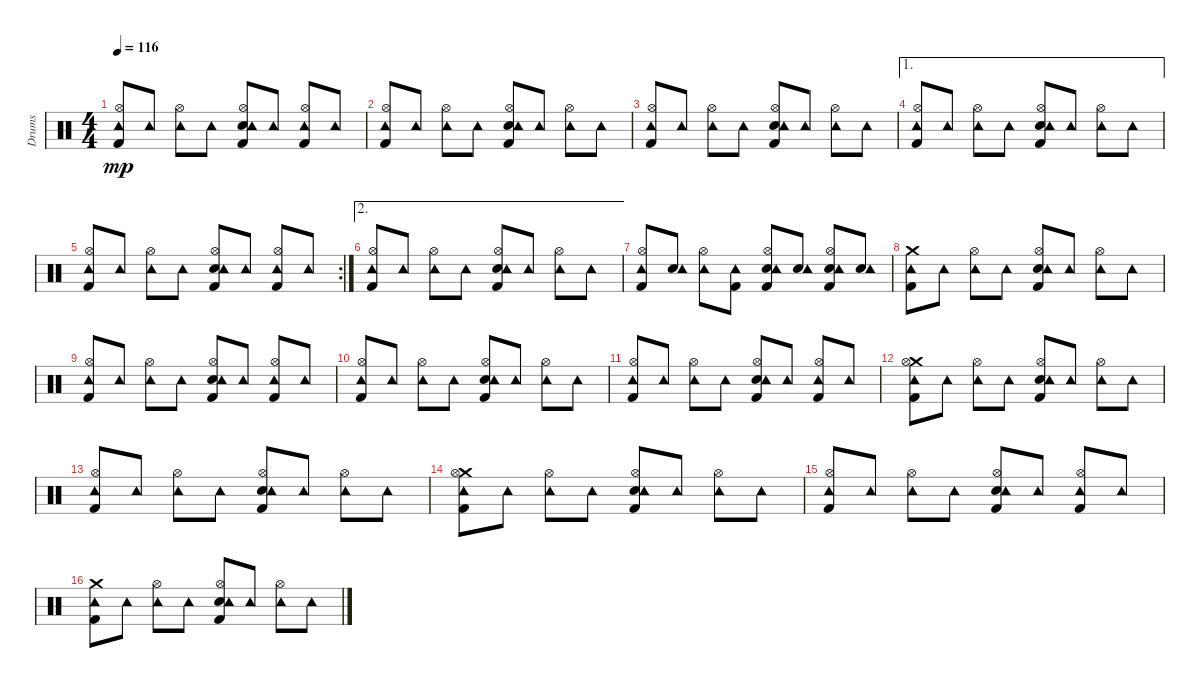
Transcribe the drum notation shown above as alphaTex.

\track ("Drums" "Drums") {instrument percussion}
\staff {score}
\articulation defaults
\ts (4 4)
\tempo 116
\clef neutral
\ks c
("Kick (hit) 2" "Hi-Hat (open)" "Tambourine (hit)").8{dy mp} "Tambourine (hit)".8 ("Hi-Hat (open)" "Tambourine (hit)").8 "Tambourine (hit)".8 ("Kick (hit) 2" "Hi-Hat (open)" "Snare (hit) 2" "Tambourine (hit)").8 "Tambourine (hit)".8 ("Kick (hit) 2" "Hi-Hat (open)" "Tambourine (hit)").8 "Tambourine (hit)".8 |
("Kick (hit) 2" "Hi-Hat (open)" "Tambourine (hit)").8 "Tambourine (hit)".8 ("Hi-Hat (open)" "Tambourine (hit)").8 "Tambourine (hit)".8 ("Kick (hit) 2" "Hi-Hat (open)" "Snare (hit) 2" "Tambourine (hit)").8 "Tambourine (hit)".8 ("Hi-Hat (open)" "Tambourine (hit)").8 "Tambourine (hit)".8 |
("Kick (hit) 2" "Hi-Hat (open)" "Tambourine (hit)").8 "Tambourine (hit)".8 ("Hi-Hat (open)" "Tambourine (hit)").8 "Tambourine (hit)".8 ("Kick (hit) 2" "Hi-Hat (open)" "Snare (hit) 2" "Tambourine (hit)").8 "Tambourine (hit)".8 ("Hi-Hat (open)" "Tambourine (hit)").8 "Tambourine (hit)".8 |
\ae 1
("Kick (hit) 2" "Hi-Hat (open)" "Tambourine (hit)").8 "Tambourine (hit)".8 ("Hi-Hat (open)" "Tambourine (hit)").8 "Tambourine (hit)".8 ("Kick (hit) 2" "Hi-Hat (open)" "Snare (hit) 2" "Tambourine (hit)").8 "Tambourine (hit)".8 ("Hi-Hat (open)" "Tambourine (hit)").8 "Tambourine (hit)".8 |
\rc 2
("Kick (hit) 2" "Hi-Hat (open)" "Tambourine (hit)").8 "Tambourine (hit)".8 ("Hi-Hat (open)" "Tambourine (hit)").8 "Tambourine (hit)".8 ("Kick (hit) 2" "Hi-Hat (open)" "Snare (hit) 2" "Tambourine (hit)").8 "Tambourine (hit)".8 ("Kick (hit) 2" "Hi-Hat (open)" "Tambourine (hit)").8 "Tambourine (hit)".8 |
\ae 2
("Kick (hit) 2" "Hi-Hat (open)" "Tambourine (hit)").8 "Tambourine (hit)".8 ("Hi-Hat (open)" "Tambourine (hit)").8 "Tambourine (hit)".8 ("Kick (hit) 2" "Hi-Hat (open)" "Snare (hit) 2" "Tambourine (hit)").8 "Tambourine (hit)".8 ("Hi-Hat (open)" "Tambourine (hit)").8 "Tambourine (hit)".8 |
("Kick (hit) 2" "Hi-Hat (open)" "Tambourine (hit)").8 ("Snare (hit) 2" "Tambourine (hit)").8 ("Hi-Hat (open)" "Tambourine (hit)").8 ("Kick (hit) 2" "Tambourine (hit)").8 ("Kick (hit) 2" "Hi-Hat (open)" "Snare (hit) 2" "Tambourine (hit)").8 ("Snare (hit) 2" "Tambourine (hit)").8 ("Kick (hit) 2" "Hi-Hat (open)" "Snare (hit) 2" "Tambourine (hit)").8 ("Snare (hit) 2" "Tambourine (hit)").8 |
("Kick (hit) 2" "Crash medium (hit)" "Tambourine (hit)").8 "Tambourine (hit)".8 ("Hi-Hat (open)" "Tambourine (hit)").8 "Tambourine (hit)".8 ("Kick (hit) 2" "Hi-Hat (open)" "Snare (hit) 2" "Tambourine (hit)").8 "Tambourine (hit)".8 ("Hi-Hat (open)" "Tambourine (hit)").8 "Tambourine (hit)".8 |
("Kick (hit) 2" "Hi-Hat (open)" "Tambourine (hit)").8 "Tambourine (hit)".8 ("Hi-Hat (open)" "Tambourine (hit)").8 "Tambourine (hit)".8 ("Kick (hit) 2" "Hi-Hat (open)" "Snare (hit) 2" "Tambourine (hit)").8 "Tambourine (hit)".8 ("Kick (hit) 2" "Hi-Hat (open)" "Tambourine (hit)").8 "Tambourine (hit)".8 |
("Kick (hit) 2" "Hi-Hat (open)" "Tambourine (hit)").8 "Tambourine (hit)".8 ("Hi-Hat (open)" "Tambourine (hit)").8 "Tambourine (hit)".8 ("Kick (hit) 2" "Hi-Hat (open)" "Snare (hit) 2" "Tambourine (hit)").8 "Tambourine (hit)".8 ("Hi-Hat (open)" "Tambourine (hit)").8 "Tambourine (hit)".8 |
("Kick (hit) 2" "Hi-Hat (open)" "Tambourine (hit)").8 "Tambourine (hit)".8 ("Hi-Hat (open)" "Tambourine (hit)").8 "Tambourine (hit)".8 ("Kick (hit) 2" "Hi-Hat (open)" "Snare (hit) 2" "Tambourine (hit)").8 "Tambourine (hit)".8 ("Kick (hit) 2" "Hi-Hat (open)" "Tambourine (hit)").8 "Tambourine (hit)".8 |
("Kick (hit) 2" "Crash medium (hit)" "Hi-Hat (open)" "Tambourine (hit)").8 "Tambourine (hit)".8 ("Hi-Hat (open)" "Tambourine (hit)").8 "Tambourine (hit)".8 ("Kick (hit) 2" "Hi-Hat (open)" "Snare (hit) 2" "Tambourine (hit)").8 "Tambourine (hit)".8 ("Hi-Hat (open)" "Tambourine (hit)").8 "Tambourine (hit)".8 |
("Kick (hit) 2" "Hi-Hat (open)" "Tambourine (hit)").8 "Tambourine (hit)".8 ("Hi-Hat (open)" "Tambourine (hit)").8 "Tambourine (hit)".8 ("Kick (hit) 2" "Hi-Hat (open)" "Snare (hit) 2" "Tambourine (hit)").8 "Tambourine (hit)".8 ("Hi-Hat (open)" "Tambourine (hit)").8 "Tambourine (hit)".8 |
("Kick (hit) 2" "Crash medium (hit)" "Hi-Hat (open)" "Tambourine (hit)").8 "Tambourine (hit)".8 ("Hi-Hat (open)" "Tambourine (hit)").8 "Tambourine (hit)".8 ("Kick (hit) 2" "Hi-Hat (open)" "Snare (hit) 2" "Tambourine (hit)").8 "Tambourine (hit)".8 ("Hi-Hat (open)" "Tambourine (hit)").8 "Tambourine (hit)".8 |
("Kick (hit) 2" "Hi-Hat (open)" "Tambourine (hit)").8 "Tambourine (hit)".8 ("Hi-Hat (open)" "Tambourine (hit)").8 "Tambourine (hit)".8 ("Kick (hit) 2" "Hi-Hat (open)" "Snare (hit) 2" "Tambourine (hit)").8 "Tambourine (hit)".8 ("Kick (hit) 2" "Hi-Hat (open)" "Tambourine (hit)").8 "Tambourine (hit)".8 |
("Kick (hit) 2" "Crash medium (hit)" "Tambourine (hit)").8 "Tambourine (hit)".8 ("Hi-Hat (open)" "Tambourine (hit)").8 "Tambourine (hit)".8 ("Kick (hit) 2" "Hi-Hat (open)" "Snare (hit) 2" "Tambourine (hit)").8 "Tambourine (hit)".8 ("Hi-Hat (open)" "Tambourine (hit)").8 "Tambourine (hit)".8
